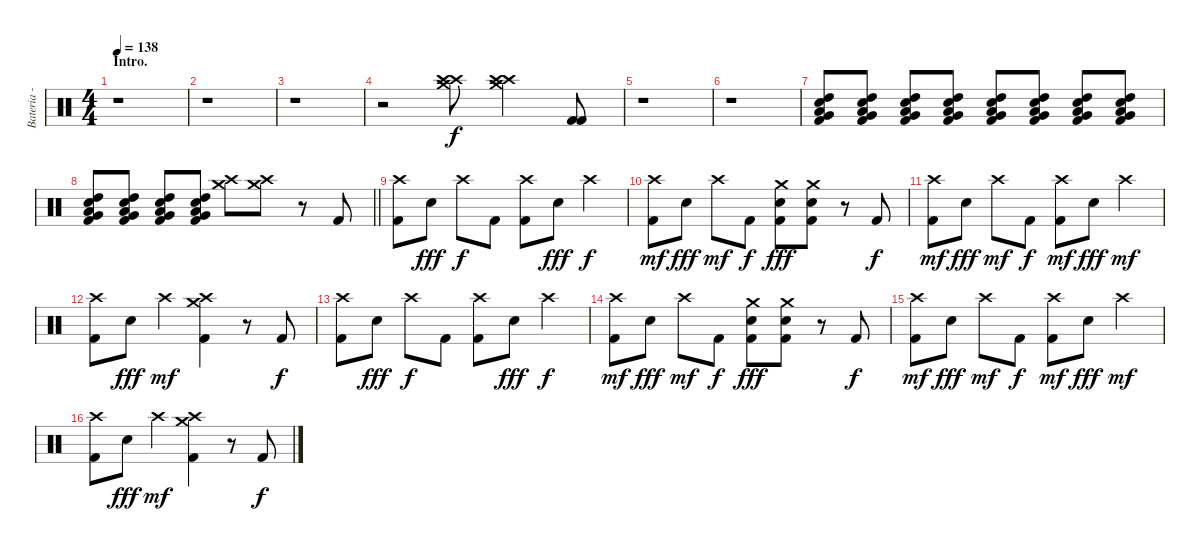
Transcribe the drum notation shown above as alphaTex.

\track ("Bateria - Larzon" "Bateria - ") {instrument percussion}
\staff {score}
\articulation defaults
\ts (4 4)
\section ("" "Intro.")
\tempo 138
\clef neutral
\ks c
r.1{dy f} |
r.1 |
r.1 |
r.2 ("Crash medium (hit)" "Crash high (hit)" "Crash high (hit)").8 ("Crash medium (hit)" "Crash high (hit)" "Crash high (hit)").4 ("Kick (hit) 2" "Kick (hit) 2").8 |
r.1 |
r.1 |
("Electric Snare (hit)" "Very Low Tom (hit)" "Kick (hit) 2" "Low Floor Tom (hit)" "High Tom (hit)").8{volume 11} ("Electric Snare (hit)" "Very Low Tom (hit)" "Kick (hit) 2" "Low Floor Tom (hit)" "High Tom (hit)").8 ("Electric Snare (hit)" "Very Low Tom (hit)" "Kick (hit) 2" "Low Floor Tom (hit)" "High Tom (hit)").8{volume 12} ("Electric Snare (hit)" "Very Low Tom (hit)" "Kick (hit) 2" "Low Floor Tom (hit)" "High Tom (hit)").8 ("Electric Snare (hit)" "Very Low Tom (hit)" "Kick (hit) 2" "Low Floor Tom (hit)" "High Tom (hit)").8{volume 13} ("Electric Snare (hit)" "Very Low Tom (hit)" "Kick (hit) 2" "Low Floor Tom (hit)" "High Tom (hit)").8 ("Electric Snare (hit)" "Very Low Tom (hit)" "Kick (hit) 2" "Low Floor Tom (hit)" "High Tom (hit)").8{volume 14} ("Electric Snare (hit)" "Very Low Tom (hit)" "Kick (hit) 2" "Low Floor Tom (hit)" "High Tom (hit)").8 |
\barLineRight lightlight
("Electric Snare (hit)" "Very Low Tom (hit)" "Kick (hit) 2" "Low Floor Tom (hit)" "High Tom (hit)").8{volume 15} ("Electric Snare (hit)" "Very Low Tom (hit)" "Kick (hit) 2" "Low Floor Tom (hit)" "High Tom (hit)").8 ("Electric Snare (hit)" "Very Low Tom (hit)" "Kick (hit) 2" "Low Floor Tom (hit)" "High Tom (hit)").8{volume 16} ("Electric Snare (hit)" "Very Low Tom (hit)" "Kick (hit) 2" "Low Floor Tom (hit)" "High Tom (hit)").8 ("Crash high (hit)" "Crash medium (hit)").8 ("Crash high (hit)" "Crash medium (hit)").8 r.8 "Kick (hit) 2".8 |
("Kick (hit) 2" "Crash high (hit)").8 "Electric Snare (hit)".8{dy fff} "Crash high (hit)".8{dy f} "Kick (hit) 2".8 ("Kick (hit) 2" "Crash high (hit)").8 "Electric Snare (hit)".8{dy fff} "Crash high (hit)".4{dy f} |
("Kick (hit) 2" "Crash high (hit)").8{dy mf} "Electric Snare (hit)".8{dy fff} "Crash high (hit)".8{dy mf} "Kick (hit) 2".8{dy f} ("Kick (hit) 2" "Electric Snare (hit)" "Crash medium (hit)").8{dy fff} ("Kick (hit) 2" "Electric Snare (hit)" "Crash medium (hit)").8 r.8 "Kick (hit) 2".8{dy f} |
("Kick (hit) 2" "Crash high (hit)").8{dy mf} "Electric Snare (hit)".8{dy fff} "Crash high (hit)".8{dy mf} "Kick (hit) 2".8{dy f} ("Kick (hit) 2" "Crash high (hit)").8{dy mf} "Electric Snare (hit)".8{dy fff} "Crash high (hit)".4{dy mf} |
("Kick (hit) 2" "Crash high (hit)").8 "Electric Snare (hit)".8{dy fff} "Crash high (hit)".4{dy mf} ("Kick (hit) 2" "Crash medium (hit)" "Crash high (hit)").4 r.8 "Kick (hit) 2".8{dy f} |
("Kick (hit) 2" "Crash high (hit)").8 "Electric Snare (hit)".8{dy fff} "Crash high (hit)".8{dy f} "Kick (hit) 2".8 ("Kick (hit) 2" "Crash high (hit)").8 "Electric Snare (hit)".8{dy fff} "Crash high (hit)".4{dy f} |
("Kick (hit) 2" "Crash high (hit)").8{dy mf} "Electric Snare (hit)".8{dy fff} "Crash high (hit)".8{dy mf} "Kick (hit) 2".8{dy f} ("Kick (hit) 2" "Electric Snare (hit)" "Crash medium (hit)").8{dy fff} ("Kick (hit) 2" "Electric Snare (hit)" "Crash medium (hit)").8 r.8 "Kick (hit) 2".8{dy f} |
("Kick (hit) 2" "Crash high (hit)").8{dy mf} "Electric Snare (hit)".8{dy fff} "Crash high (hit)".8{dy mf} "Kick (hit) 2".8{dy f} ("Kick (hit) 2" "Crash high (hit)").8{dy mf} "Electric Snare (hit)".8{dy fff} "Crash high (hit)".4{dy mf} |
("Kick (hit) 2" "Crash high (hit)").8 "Electric Snare (hit)".8{dy fff} "Crash high (hit)".4{dy mf} ("Kick (hit) 2" "Crash medium (hit)" "Crash high (hit)").4 r.8 "Kick (hit) 2".8{dy f}
